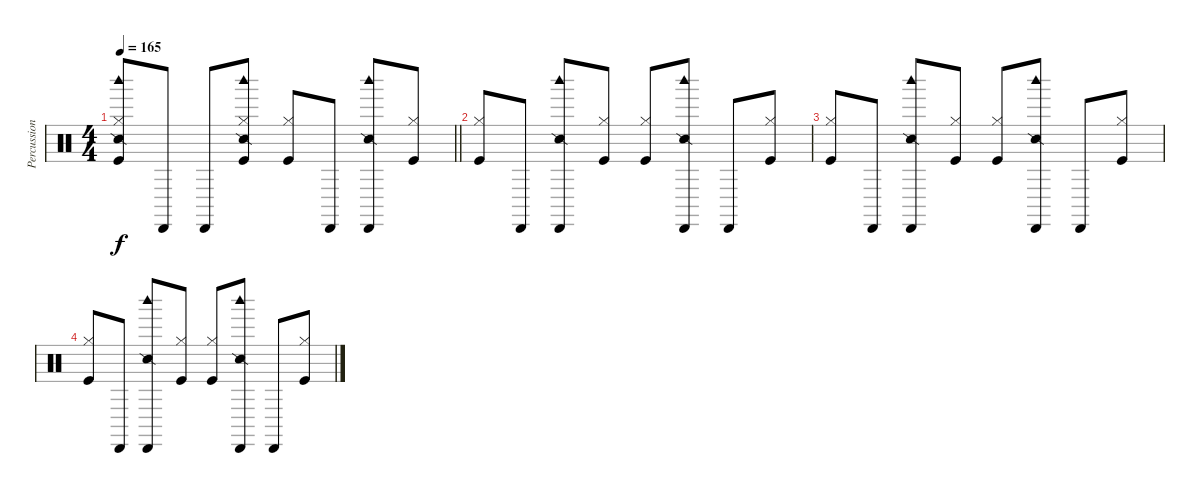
\track ("Percussion" "Percussion") {instrument percussion}
\staff {score}
\articulation defaults
\ts (4 4)
\tempo 165
\clef neutral
\barLineRight lightlight
\ks c
("Snare (side stick) 2" "Hi-Hat (closed)" "Woodblock high (hit)" "Kick (hit)").8{dy f} "Cabasa (hit)".8 "Cabasa (hit)".8 ("Snare (side stick) 2" "Hi-Hat (closed)" "Woodblock high (hit)" "Kick (hit)").8 ("Hi-Hat (closed)" "Kick (hit)").8 "Cabasa (hit)".8 ("Snare (side stick) 2" "Cabasa (hit)" "Woodblock high (hit)").8 ("Hi-Hat (closed)" "Kick (hit)").8 |
("Hi-Hat (closed)" "Kick (hit)").8 "Cabasa (hit)".8 ("Snare (side stick) 2" "Cabasa (hit)" "Woodblock high (hit)").8 ("Hi-Hat (closed)" "Kick (hit)").8 ("Hi-Hat (closed)" "Kick (hit)").8 ("Snare (side stick) 2" "Cabasa (hit)" "Woodblock high (hit)").8 "Cabasa (hit)".8 ("Hi-Hat (closed)" "Kick (hit)").8 |
("Hi-Hat (closed)" "Kick (hit)").8 "Cabasa (hit)".8 ("Snare (side stick) 2" "Cabasa (hit)" "Woodblock high (hit)").8 ("Hi-Hat (closed)" "Kick (hit)").8 ("Hi-Hat (closed)" "Kick (hit)").8 ("Snare (side stick) 2" "Cabasa (hit)" "Woodblock high (hit)").8 "Cabasa (hit)".8 ("Hi-Hat (closed)" "Kick (hit)").8 |
("Hi-Hat (closed)" "Kick (hit)").8 "Cabasa (hit)".8 ("Snare (side stick) 2" "Cabasa (hit)" "Woodblock high (hit)").8 ("Hi-Hat (closed)" "Kick (hit)").8 ("Hi-Hat (closed)" "Kick (hit)").8 ("Snare (side stick) 2" "Cabasa (hit)" "Woodblock high (hit)").8 "Cabasa (hit)".8 ("Hi-Hat (closed)" "Kick (hit)").8
